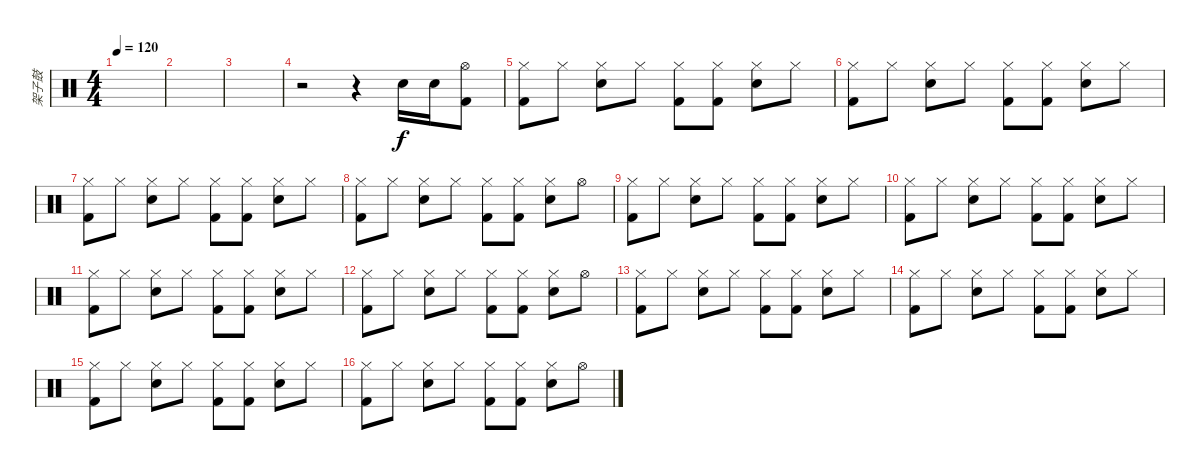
\track ("架子鼓" "架子鼓") {instrument percussion}
\staff {score}
\articulation defaults
\ts (4 4)
\tempo 120
\clef neutral
\ks c
|
|
|
r.2 r.4 "Snare (hit) 2".16 "Snare (hit) 2".16 ("Hi-Hat (open)" "Kick (hit) 2").8 |
("Hi-Hat (closed)" "Kick (hit) 2").8 "Hi-Hat (closed)".8 ("Hi-Hat (closed)" "Snare (hit) 2").8 "Hi-Hat (closed)".8 ("Hi-Hat (closed)" "Kick (hit) 2").8 ("Hi-Hat (closed)" "Kick (hit) 2").8 ("Hi-Hat (closed)" "Snare (hit) 2").8 "Hi-Hat (closed)".8 |
("Hi-Hat (closed)" "Kick (hit) 2").8 "Hi-Hat (closed)".8 ("Hi-Hat (closed)" "Snare (hit) 2").8 "Hi-Hat (closed)".8 ("Hi-Hat (closed)" "Kick (hit) 2").8 ("Hi-Hat (closed)" "Kick (hit) 2").8 ("Hi-Hat (closed)" "Snare (hit) 2").8 "Hi-Hat (closed)".8 |
("Hi-Hat (closed)" "Kick (hit) 2").8 "Hi-Hat (closed)".8 ("Hi-Hat (closed)" "Snare (hit) 2").8 "Hi-Hat (closed)".8 ("Hi-Hat (closed)" "Kick (hit) 2").8 ("Hi-Hat (closed)" "Kick (hit) 2").8 ("Hi-Hat (closed)" "Snare (hit) 2").8 "Hi-Hat (closed)".8 |
("Hi-Hat (closed)" "Kick (hit) 2").8 "Hi-Hat (closed)".8 ("Hi-Hat (closed)" "Snare (hit) 2").8 "Hi-Hat (closed)".8 ("Hi-Hat (closed)" "Kick (hit) 2").8 ("Hi-Hat (closed)" "Kick (hit) 2").8 ("Hi-Hat (closed)" "Snare (hit) 2").8 "Hi-Hat (open)".8 |
("Hi-Hat (closed)" "Kick (hit) 2").8 "Hi-Hat (closed)".8 ("Hi-Hat (closed)" "Snare (hit) 2").8 "Hi-Hat (closed)".8 ("Hi-Hat (closed)" "Kick (hit) 2").8 ("Hi-Hat (closed)" "Kick (hit) 2").8 ("Hi-Hat (closed)" "Snare (hit) 2").8 "Hi-Hat (closed)".8 |
("Hi-Hat (closed)" "Kick (hit) 2").8 "Hi-Hat (closed)".8 ("Hi-Hat (closed)" "Snare (hit) 2").8 "Hi-Hat (closed)".8 ("Hi-Hat (closed)" "Kick (hit) 2").8 ("Hi-Hat (closed)" "Kick (hit) 2").8 ("Hi-Hat (closed)" "Snare (hit) 2").8 "Hi-Hat (closed)".8 |
("Hi-Hat (closed)" "Kick (hit) 2").8 "Hi-Hat (closed)".8 ("Hi-Hat (closed)" "Snare (hit) 2").8 "Hi-Hat (closed)".8 ("Hi-Hat (closed)" "Kick (hit) 2").8 ("Hi-Hat (closed)" "Kick (hit) 2").8 ("Hi-Hat (closed)" "Snare (hit) 2").8 "Hi-Hat (closed)".8 |
("Hi-Hat (closed)" "Kick (hit) 2").8 "Hi-Hat (closed)".8 ("Hi-Hat (closed)" "Snare (hit) 2").8 "Hi-Hat (closed)".8 ("Hi-Hat (closed)" "Kick (hit) 2").8 ("Hi-Hat (closed)" "Kick (hit) 2").8 ("Hi-Hat (closed)" "Snare (hit) 2").8 "Hi-Hat (open)".8 |
("Hi-Hat (closed)" "Kick (hit) 2").8 "Hi-Hat (closed)".8 ("Hi-Hat (closed)" "Snare (hit) 2").8 "Hi-Hat (closed)".8 ("Hi-Hat (closed)" "Kick (hit) 2").8 ("Hi-Hat (closed)" "Kick (hit) 2").8 ("Hi-Hat (closed)" "Snare (hit) 2").8 "Hi-Hat (closed)".8 |
("Hi-Hat (closed)" "Kick (hit) 2").8 "Hi-Hat (closed)".8 ("Hi-Hat (closed)" "Snare (hit) 2").8 "Hi-Hat (closed)".8 ("Hi-Hat (closed)" "Kick (hit) 2").8 ("Hi-Hat (closed)" "Kick (hit) 2").8 ("Hi-Hat (closed)" "Snare (hit) 2").8 "Hi-Hat (closed)".8 |
("Hi-Hat (closed)" "Kick (hit) 2").8 "Hi-Hat (closed)".8 ("Hi-Hat (closed)" "Snare (hit) 2").8 "Hi-Hat (closed)".8 ("Hi-Hat (closed)" "Kick (hit) 2").8 ("Hi-Hat (closed)" "Kick (hit) 2").8 ("Hi-Hat (closed)" "Snare (hit) 2").8 "Hi-Hat (closed)".8 |
("Hi-Hat (closed)" "Kick (hit) 2").8 "Hi-Hat (closed)".8 ("Hi-Hat (closed)" "Snare (hit) 2").8 "Hi-Hat (closed)".8 ("Hi-Hat (closed)" "Kick (hit) 2").8 ("Hi-Hat (closed)" "Kick (hit) 2").8 ("Hi-Hat (closed)" "Snare (hit) 2").8 "Hi-Hat (open)".8
